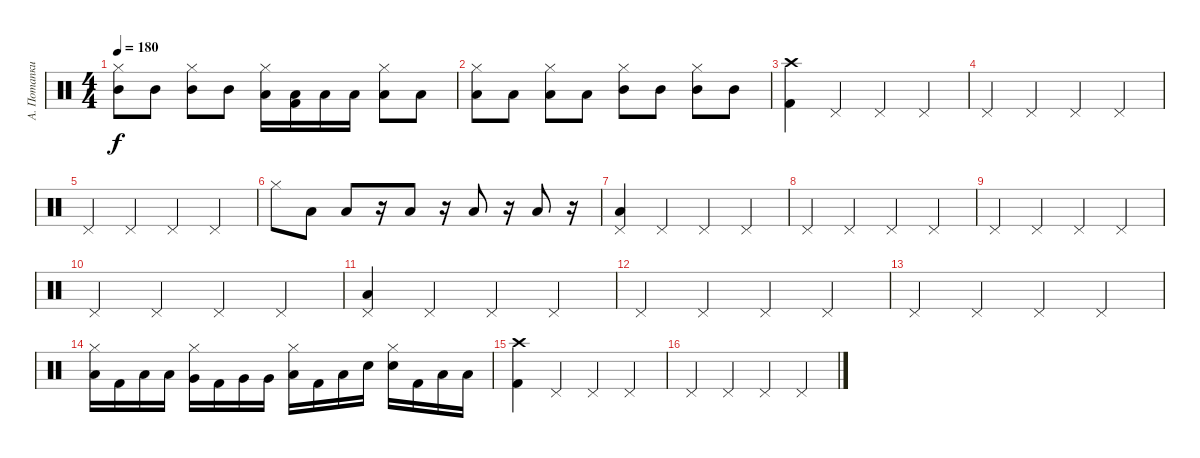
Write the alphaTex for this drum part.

\track ("А. Потапкин" "А. Потапки") {instrument percussion}
\staff {score}
\articulation defaults
\ts (4 4)
\tempo 180
\clef neutral
\ks c
("Hi-Hat (closed)" "Mid Tom (hit)").8{dy f} "Mid Tom (hit)".8 ("Hi-Hat (closed)" "Mid Tom (hit)").8 "Mid Tom (hit)".8 ("Hi-Hat (closed)" "Low Tom (hit)").16 ("Low Tom (hit)" "Kick (hit) 2").16 "Low Tom (hit)".16 "Low Tom (hit)".16 ("Hi-Hat (closed)" "Low Tom (hit)").8 "Low Tom (hit)".8 |
("Hi-Hat (closed)" "Low Floor Tom (hit)").8 "Low Floor Tom (hit)".8 ("Hi-Hat (closed)" "Low Floor Tom (hit)").8 "Low Floor Tom (hit)".8 ("Hi-Hat (closed)" "Mid Tom (hit)").8 "Mid Tom (hit)".8 ("Hi-Hat (closed)" "Mid Tom (hit)").8 "Mid Tom (hit)".8 |
("Crash high (hit)" "Kick (hit) 2").4 "Pedal Hi-Hat (hit)".4 "Pedal Hi-Hat (hit)".4 "Pedal Hi-Hat (hit)".4 |
"Pedal Hi-Hat (hit)".4 "Pedal Hi-Hat (hit)".4 "Pedal Hi-Hat (hit)".4 "Pedal Hi-Hat (hit)".4 |
"Pedal Hi-Hat (hit)".4 "Pedal Hi-Hat (hit)".4 "Pedal Hi-Hat (hit)".4 "Pedal Hi-Hat (hit)".4 |
"Hi-Hat (closed)".8 "Low Tom (hit)".8 "Low Tom (hit)".8 r.16 "Low Tom (hit)".8 r.16 "Low Floor Tom (hit)".8 r.16 "Low Floor Tom (hit)".8 r.16 |
("Low Floor Tom (hit)" "Pedal Hi-Hat (hit)").4 "Pedal Hi-Hat (hit)".4 "Pedal Hi-Hat (hit)".4 "Pedal Hi-Hat (hit)".4 |
"Pedal Hi-Hat (hit)".4 "Pedal Hi-Hat (hit)".4 "Pedal Hi-Hat (hit)".4 "Pedal Hi-Hat (hit)".4 |
"Pedal Hi-Hat (hit)".4 "Pedal Hi-Hat (hit)".4 "Pedal Hi-Hat (hit)".4 "Pedal Hi-Hat (hit)".4 |
"Pedal Hi-Hat (hit)".4 "Pedal Hi-Hat (hit)".4 "Pedal Hi-Hat (hit)".4 "Pedal Hi-Hat (hit)".4 |
("Low Floor Tom (hit)" "Pedal Hi-Hat (hit)").4 "Pedal Hi-Hat (hit)".4 "Pedal Hi-Hat (hit)".4 "Pedal Hi-Hat (hit)".4 |
"Pedal Hi-Hat (hit)".4 "Pedal Hi-Hat (hit)".4 "Pedal Hi-Hat (hit)".4 "Pedal Hi-Hat (hit)".4 |
"Pedal Hi-Hat (hit)".4 "Pedal Hi-Hat (hit)".4 "Pedal Hi-Hat (hit)".4 "Pedal Hi-Hat (hit)".4 |
("Hi-Hat (closed)" "Low Tom (hit)").16 "Kick (hit) 2".16 "Low Tom (hit)".16 "Low Tom (hit)".16 ("Hi-Hat (closed)" "Very Low Tom (hit)").16 "Kick (hit) 2".16 "Very Low Tom (hit)".16 "Very Low Tom (hit)".16 ("Hi-Hat (closed)" "Low Floor Tom (hit)").16 "Kick (hit) 2".16 "Low Floor Tom (hit)".16 "Snare (hit) 2".16 ("Hi-Hat (closed)" "Snare (hit) 2").16 "Kick (hit) 2".16 "Low Floor Tom (hit)".16 "Low Floor Tom (hit)".16 |
("Crash high (hit)" "Kick (hit) 2").4 "Pedal Hi-Hat (hit)".4 "Pedal Hi-Hat (hit)".4 "Pedal Hi-Hat (hit)".4 |
"Pedal Hi-Hat (hit)".4 "Pedal Hi-Hat (hit)".4 "Pedal Hi-Hat (hit)".4 "Pedal Hi-Hat (hit)".4
